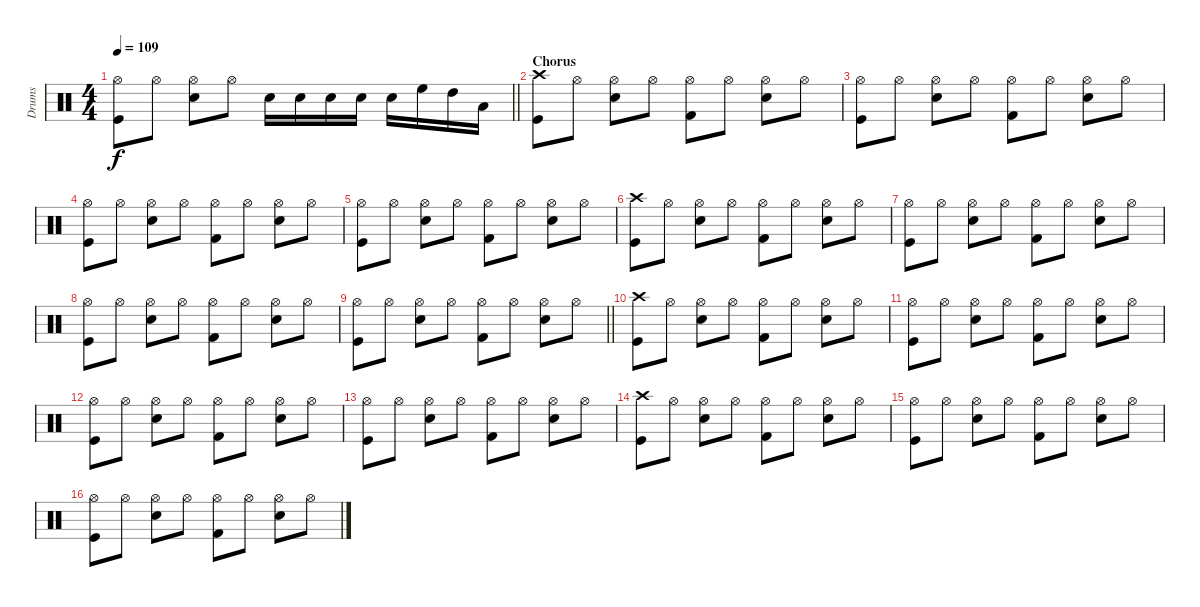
\track ("Drums" "Drums") {instrument percussion}
\staff {score}
\articulation defaults
\ts (4 4)
\tempo 109
\clef neutral
\barLineRight lightlight
\ks c
("Kick (hit)" "Hi-Hat (open)").8{dy f} "Hi-Hat (open)".8 ("Snare (hit) 2" "Hi-Hat (open)").8 "Hi-Hat (open)".8 "Snare (hit) 2".16 "Snare (hit) 2".16 "Snare (hit) 2".16 "Snare (hit) 2".16 "Snare (hit) 2".16 "High Floor Tom (hit)".16 "High Tom (hit)".16 "Low Floor Tom (hit)".16 |
\section ("" "Chorus")
("Crash high (hit)" "Kick (hit)").8 "Hi-Hat (open)".8 ("Hi-Hat (open)" "Snare (hit) 2").8 "Hi-Hat (open)".8 ("Hi-Hat (open)" "Kick (hit) 2").8 "Hi-Hat (open)".8 ("Hi-Hat (open)" "Snare (hit) 2").8 "Hi-Hat (open)".8 |
("Hi-Hat (open)" "Kick (hit)").8 "Hi-Hat (open)".8 ("Hi-Hat (open)" "Snare (hit) 2").8 "Hi-Hat (open)".8 ("Hi-Hat (open)" "Kick (hit) 2").8 "Hi-Hat (open)".8 ("Hi-Hat (open)" "Snare (hit) 2").8 "Hi-Hat (open)".8 |
("Hi-Hat (open)" "Kick (hit)").8 "Hi-Hat (open)".8 ("Hi-Hat (open)" "Snare (hit) 2").8 "Hi-Hat (open)".8 ("Hi-Hat (open)" "Kick (hit) 2").8 "Hi-Hat (open)".8 ("Hi-Hat (open)" "Snare (hit) 2").8 "Hi-Hat (open)".8 |
("Hi-Hat (open)" "Kick (hit)").8 "Hi-Hat (open)".8 ("Hi-Hat (open)" "Snare (hit) 2").8 "Hi-Hat (open)".8 ("Hi-Hat (open)" "Kick (hit) 2").8 "Hi-Hat (open)".8 ("Hi-Hat (open)" "Snare (hit) 2").8 "Hi-Hat (open)".8 |
("Crash high (hit)" "Kick (hit)").8 "Hi-Hat (open)".8 ("Hi-Hat (open)" "Snare (hit) 2").8 "Hi-Hat (open)".8 ("Hi-Hat (open)" "Kick (hit) 2").8 "Hi-Hat (open)".8 ("Hi-Hat (open)" "Snare (hit) 2").8 "Hi-Hat (open)".8 |
("Hi-Hat (open)" "Kick (hit)").8 "Hi-Hat (open)".8 ("Hi-Hat (open)" "Snare (hit) 2").8 "Hi-Hat (open)".8 ("Hi-Hat (open)" "Kick (hit) 2").8 "Hi-Hat (open)".8 ("Hi-Hat (open)" "Snare (hit) 2").8 "Hi-Hat (open)".8 |
("Hi-Hat (open)" "Kick (hit)").8 "Hi-Hat (open)".8 ("Hi-Hat (open)" "Snare (hit) 2").8 "Hi-Hat (open)".8 ("Hi-Hat (open)" "Kick (hit) 2").8 "Hi-Hat (open)".8 ("Hi-Hat (open)" "Snare (hit) 2").8 "Hi-Hat (open)".8 |
\barLineRight lightlight
("Hi-Hat (open)" "Kick (hit)").8 "Hi-Hat (open)".8 ("Hi-Hat (open)" "Snare (hit) 2").8 "Hi-Hat (open)".8 ("Hi-Hat (open)" "Kick (hit) 2").8 "Hi-Hat (open)".8 ("Hi-Hat (open)" "Snare (hit) 2").8 "Hi-Hat (open)".8 |
("Crash high (hit)" "Kick (hit)").8 "Hi-Hat (open)".8 ("Hi-Hat (open)" "Snare (hit) 2").8 "Hi-Hat (open)".8 ("Hi-Hat (open)" "Kick (hit) 2").8 "Hi-Hat (open)".8 ("Hi-Hat (open)" "Snare (hit) 2").8 "Hi-Hat (open)".8 |
("Hi-Hat (open)" "Kick (hit)").8 "Hi-Hat (open)".8 ("Hi-Hat (open)" "Snare (hit) 2").8 "Hi-Hat (open)".8 ("Hi-Hat (open)" "Kick (hit) 2").8 "Hi-Hat (open)".8 ("Hi-Hat (open)" "Snare (hit) 2").8 "Hi-Hat (open)".8 |
("Hi-Hat (open)" "Kick (hit)").8 "Hi-Hat (open)".8 ("Hi-Hat (open)" "Snare (hit) 2").8 "Hi-Hat (open)".8 ("Hi-Hat (open)" "Kick (hit) 2").8 "Hi-Hat (open)".8 ("Hi-Hat (open)" "Snare (hit) 2").8 "Hi-Hat (open)".8 |
("Hi-Hat (open)" "Kick (hit)").8 "Hi-Hat (open)".8 ("Hi-Hat (open)" "Snare (hit) 2").8 "Hi-Hat (open)".8 ("Hi-Hat (open)" "Kick (hit) 2").8 "Hi-Hat (open)".8 ("Hi-Hat (open)" "Snare (hit) 2").8 "Hi-Hat (open)".8 |
("Crash high (hit)" "Kick (hit)").8 "Hi-Hat (open)".8 ("Hi-Hat (open)" "Snare (hit) 2").8 "Hi-Hat (open)".8 ("Hi-Hat (open)" "Kick (hit) 2").8 "Hi-Hat (open)".8 ("Hi-Hat (open)" "Snare (hit) 2").8 "Hi-Hat (open)".8 |
("Hi-Hat (open)" "Kick (hit)").8 "Hi-Hat (open)".8 ("Hi-Hat (open)" "Snare (hit) 2").8 "Hi-Hat (open)".8 ("Hi-Hat (open)" "Kick (hit) 2").8 "Hi-Hat (open)".8 ("Hi-Hat (open)" "Snare (hit) 2").8 "Hi-Hat (open)".8 |
("Hi-Hat (open)" "Kick (hit)").8 "Hi-Hat (open)".8 ("Hi-Hat (open)" "Snare (hit) 2").8 "Hi-Hat (open)".8 ("Hi-Hat (open)" "Kick (hit) 2").8 "Hi-Hat (open)".8 ("Hi-Hat (open)" "Snare (hit) 2").8 "Hi-Hat (open)".8
